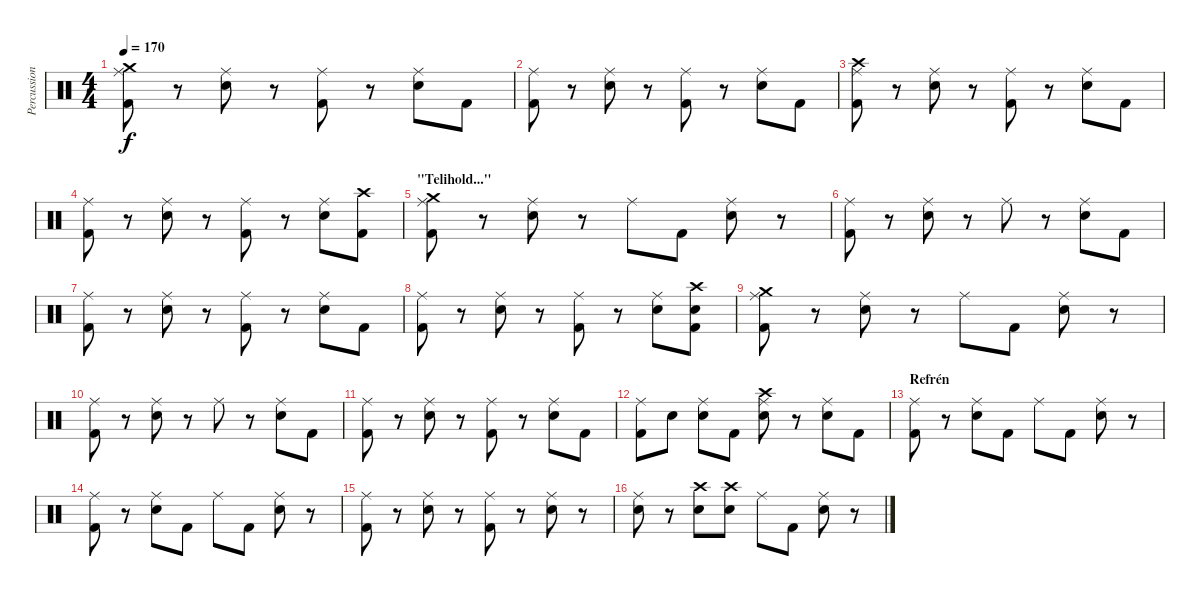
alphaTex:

\track ("Percussion" "Percussion") {instrument percussion}
\staff {score}
\articulation defaults
\ts (4 4)
\tempo 170
\clef neutral
\ks c
("Ride (middle)" "Kick (hit) 2" "Crash medium (hit)").8{dy f} r.8 ("Ride (middle)" "Electric Snare (hit)").8 r.8 ("Ride (middle)" "Kick (hit) 2").8 r.8 ("Ride (middle)" "Electric Snare (hit)").8 "Kick (hit) 2".8 |
("Ride (middle)" "Kick (hit) 2").8 r.8 ("Ride (middle)" "Electric Snare (hit)").8 r.8 ("Ride (middle)" "Kick (hit) 2").8 r.8 ("Ride (middle)" "Electric Snare (hit)").8 "Kick (hit) 2".8 |
("Ride (middle)" "Kick (hit) 2" "Crash high (hit)").8 r.8 ("Ride (middle)" "Electric Snare (hit)").8 r.8 ("Ride (middle)" "Kick (hit) 2").8 r.8 ("Ride (middle)" "Electric Snare (hit)").8 "Kick (hit) 2".8 |
("Ride (middle)" "Kick (hit) 2").8 r.8 ("Ride (middle)" "Electric Snare (hit)").8 r.8 ("Ride (middle)" "Kick (hit) 2").8 r.8 ("Ride (middle)" "Electric Snare (hit)").8 ("Kick (hit) 2" "Crash high (hit)").8 |
\section ("" "\"Telihold...\"")
("Ride (middle)" "Kick (hit) 2" "Crash medium (hit)").8 r.8 ("Ride (middle)" "Electric Snare (hit)").8 r.8 "Ride (middle)".8 "Kick (hit) 2".8 ("Ride (middle)" "Electric Snare (hit)").8 r.8 |
("Ride (middle)" "Kick (hit) 2").8 r.8 ("Ride (middle)" "Electric Snare (hit)").8 r.8 "Ride (middle)".8 r.8 ("Ride (middle)" "Electric Snare (hit)").8 "Kick (hit) 2".8 |
("Ride (middle)" "Kick (hit) 2").8 r.8 ("Ride (middle)" "Electric Snare (hit)").8 r.8 ("Ride (middle)" "Kick (hit) 2").8 r.8 ("Ride (middle)" "Electric Snare (hit)").8 "Kick (hit) 2".8 |
("Ride (middle)" "Kick (hit) 2").8 r.8 ("Ride (middle)" "Electric Snare (hit)").8 r.8 ("Ride (middle)" "Kick (hit) 2").8 r.8 ("Ride (middle)" "Electric Snare (hit)").8 ("Kick (hit) 2" "Crash high (hit)" "Electric Snare (hit)").8 |
("Ride (middle)" "Kick (hit) 2" "Crash medium (hit)").8 r.8 ("Ride (middle)" "Electric Snare (hit)").8 r.8 "Ride (middle)".8 "Kick (hit) 2".8 ("Ride (middle)" "Electric Snare (hit)").8 r.8 |
("Ride (middle)" "Kick (hit) 2").8 r.8 ("Ride (middle)" "Electric Snare (hit)").8 r.8 "Ride (middle)".8 r.8 ("Ride (middle)" "Electric Snare (hit)").8 "Kick (hit) 2".8 |
("Ride (middle)" "Kick (hit) 2").8 r.8 ("Ride (middle)" "Electric Snare (hit)").8 r.8 ("Ride (middle)" "Kick (hit) 2").8 r.8 ("Ride (middle)" "Electric Snare (hit)").8 "Kick (hit) 2".8 |
("Ride (middle)" "Kick (hit) 2").8 "Electric Snare (hit)".8 ("Ride (middle)" "Electric Snare (hit)").8 "Kick (hit) 2".8 ("Ride (middle)" "Crash high (hit)" "Electric Snare (hit)").8 r.8 ("Ride (middle)" "Electric Snare (hit)").8 "Kick (hit) 2".8 |
\section ("" "Refrén")
("Ride (middle)" "Kick (hit) 2").8 r.8 ("Ride (middle)" "Electric Snare (hit)").8 "Kick (hit) 2".8 "Ride (middle)".8 "Kick (hit) 2".8 ("Ride (middle)" "Electric Snare (hit)").8 r.8 |
("Ride (middle)" "Kick (hit) 2").8 r.8 ("Ride (middle)" "Electric Snare (hit)").8 "Kick (hit) 2".8 "Ride (middle)".8 "Kick (hit) 2".8 ("Ride (middle)" "Electric Snare (hit)").8 r.8 |
("Ride (middle)" "Kick (hit) 2").8 r.8 ("Ride (middle)" "Electric Snare (hit)").8 r.8 ("Ride (middle)" "Kick (hit) 2").8 r.8 ("Ride (middle)" "Electric Snare (hit)").8 r.8 |
("Ride (middle)" "Electric Snare (hit)").8 r.8 ("Crash high (hit)" "Electric Snare (hit)").8 ("Crash high (hit)" "Electric Snare (hit)").8 "Ride (middle)".8 "Kick (hit) 2".8 ("Ride (middle)" "Electric Snare (hit)").8 r.8
